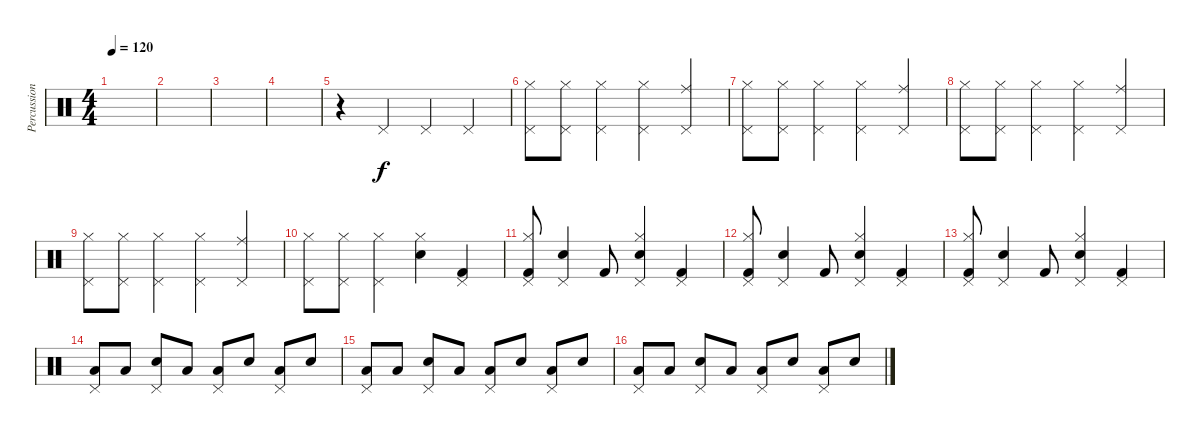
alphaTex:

\track ("Percussions" "Percussion") {instrument percussion}
\staff {score}
\articulation defaults
\ts (4 4)
\tempo 120
\clef neutral
\ks c
|
|
|
|
r.4 "Pedal Hi-Hat (hit)".4 "Pedal Hi-Hat (hit)".4 "Pedal Hi-Hat (hit)".4 |
("Hi-Hat (closed)" "Pedal Hi-Hat (hit)").8 ("Hi-Hat (closed)" "Pedal Hi-Hat (hit)").8 ("Hi-Hat (closed)" "Pedal Hi-Hat (hit)").4 ("Hi-Hat (closed)" "Pedal Hi-Hat (hit)").4 ("Ride (middle)" "Pedal Hi-Hat (hit)").4 |
("Hi-Hat (closed)" "Pedal Hi-Hat (hit)").8 ("Hi-Hat (closed)" "Pedal Hi-Hat (hit)").8 ("Hi-Hat (closed)" "Pedal Hi-Hat (hit)").4 ("Hi-Hat (closed)" "Pedal Hi-Hat (hit)").4 ("Ride (middle)" "Pedal Hi-Hat (hit)").4 |
("Hi-Hat (closed)" "Pedal Hi-Hat (hit)").8 ("Hi-Hat (closed)" "Pedal Hi-Hat (hit)").8 ("Hi-Hat (closed)" "Pedal Hi-Hat (hit)").4 ("Hi-Hat (closed)" "Pedal Hi-Hat (hit)").4 ("Ride (middle)" "Pedal Hi-Hat (hit)").4 |
("Hi-Hat (closed)" "Pedal Hi-Hat (hit)").8 ("Hi-Hat (closed)" "Pedal Hi-Hat (hit)").8 ("Hi-Hat (closed)" "Pedal Hi-Hat (hit)").4 ("Hi-Hat (closed)" "Pedal Hi-Hat (hit)").4 ("Ride (middle)" "Pedal Hi-Hat (hit)").4 |
("Hi-Hat (closed)" "Pedal Hi-Hat (hit)").8 ("Hi-Hat (closed)" "Pedal Hi-Hat (hit)").8 ("Hi-Hat (closed)" "Pedal Hi-Hat (hit)").4 ("Hi-Hat (closed)" "Snare (hit) 2").4 ("Pedal Hi-Hat (hit)" "Kick (hit) 2").4 |
("Pedal Hi-Hat (hit)" "Kick (hit) 2" "Hi-Hat (closed)").8 ("Pedal Hi-Hat (hit)" "Snare (hit) 2").4 "Kick (hit) 2".8 ("Pedal Hi-Hat (hit)" "Snare (hit) 2" "Hi-Hat (closed)").4 ("Pedal Hi-Hat (hit)" "Kick (hit) 2").4 |
("Pedal Hi-Hat (hit)" "Kick (hit) 2" "Hi-Hat (closed)").8 ("Pedal Hi-Hat (hit)" "Snare (hit) 2").4 "Kick (hit) 2".8 ("Pedal Hi-Hat (hit)" "Snare (hit) 2" "Hi-Hat (closed)").4 ("Pedal Hi-Hat (hit)" "Kick (hit) 2").4 |
("Pedal Hi-Hat (hit)" "Kick (hit) 2" "Hi-Hat (closed)").8 ("Pedal Hi-Hat (hit)" "Snare (hit) 2").4 "Kick (hit) 2".8 ("Pedal Hi-Hat (hit)" "Snare (hit) 2" "Hi-Hat (closed)").4 ("Pedal Hi-Hat (hit)" "Kick (hit) 2").4 |
("Low Floor Tom (hit)" "Pedal Hi-Hat (hit)").8 "Low Floor Tom (hit)".8 ("Electric Snare (hit)" "Pedal Hi-Hat (hit)").8 "Low Floor Tom (hit)".8 ("Low Floor Tom (hit)" "Pedal Hi-Hat (hit)").8 "Electric Snare (hit)".8 ("Low Floor Tom (hit)" "Pedal Hi-Hat (hit)").8 "Electric Snare (hit)".8 |
("Low Floor Tom (hit)" "Pedal Hi-Hat (hit)").8 "Low Floor Tom (hit)".8 ("Electric Snare (hit)" "Pedal Hi-Hat (hit)").8 "Low Floor Tom (hit)".8 ("Low Floor Tom (hit)" "Pedal Hi-Hat (hit)").8 "Electric Snare (hit)".8 ("Low Floor Tom (hit)" "Pedal Hi-Hat (hit)").8 "Electric Snare (hit)".8 |
("Low Floor Tom (hit)" "Pedal Hi-Hat (hit)").8 "Low Floor Tom (hit)".8 ("Electric Snare (hit)" "Pedal Hi-Hat (hit)").8 "Low Floor Tom (hit)".8 ("Low Floor Tom (hit)" "Pedal Hi-Hat (hit)").8 "Electric Snare (hit)".8 ("Low Floor Tom (hit)" "Pedal Hi-Hat (hit)").8 "Electric Snare (hit)".8
